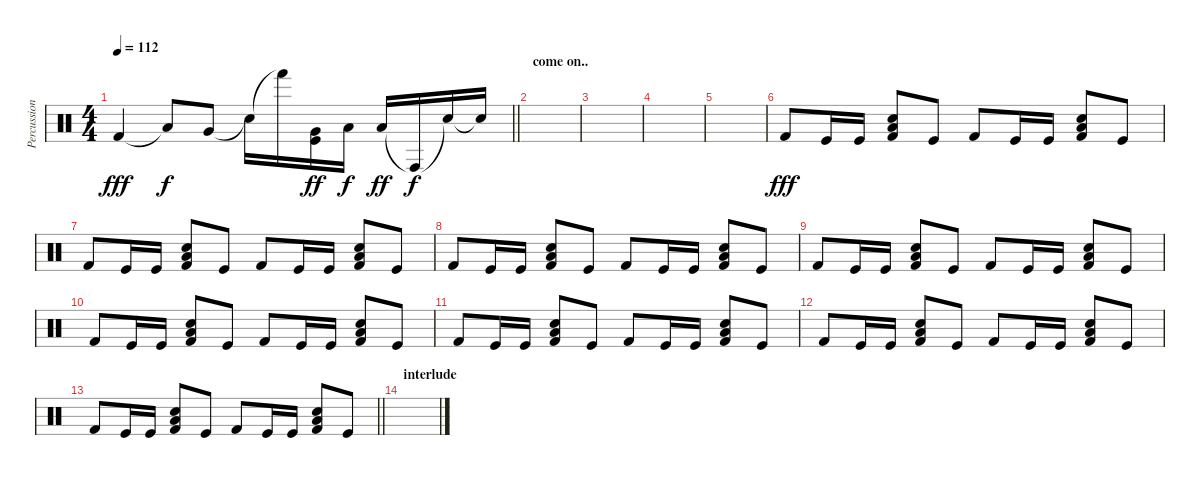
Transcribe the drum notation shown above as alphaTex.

\track ("Percussion" "Percussion") {instrument percussion}
\staff {score}
\articulation defaults
\ts (4 4)
\tempo 112
\clef neutral
\barLineRight lightlight
\ks c "Kick (hit) 2".4{dy fff} "Low Floor Tom (hit)"{t}.8{dy f} "Very Low Tom (hit)".8 "Snare (hit)"{t}.16 "Hand (hit)"{t}.16
("Very Low Tom (hit)" "Kick (hit)").16{dy ff} "Low Tom (hit)".16{dy f} "Low Tom (hit)".16{dy ff} "Conga high (hit)"{t}.16{dy f} "Snare (hit)"{t}.16 "Snare (hit)"{t}.16 |
\section ("" "come on..")
|
|
|
|
"Kick (hit) 2".8{dy fff} "Kick (hit)".16 "Kick (hit)".16 ("Kick (hit) 2" "Low Floor Tom (hit)" "Hand Clap (hit)").8 "Kick (hit)".8 "Kick (hit) 2".8 "Kick (hit)".16 "Kick (hit)".16 ("Kick (hit) 2" "Low Floor Tom (hit)" "Hand Clap (hit)").8 "Kick (hit)".8 |
"Kick (hit) 2".8 "Kick (hit)".16 "Kick (hit)".16 ("Kick (hit) 2" "Low Floor Tom (hit)" "Hand Clap (hit)").8 "Kick (hit)".8 "Kick (hit) 2".8 "Kick (hit)".16 "Kick (hit)".16 ("Kick (hit) 2" "Low Floor Tom (hit)" "Hand Clap (hit)").8 "Kick (hit)".8 |
"Kick (hit) 2".8 "Kick (hit)".16 "Kick (hit)".16 ("Kick (hit) 2" "Low Floor Tom (hit)" "Hand Clap (hit)").8 "Kick (hit)".8 "Kick (hit) 2".8 "Kick (hit)".16 "Kick (hit)".16 ("Kick (hit) 2" "Low Floor Tom (hit)" "Hand Clap (hit)").8 "Kick (hit)".8 |
"Kick (hit) 2".8 "Kick (hit)".16 "Kick (hit)".16 ("Kick (hit) 2" "Low Floor Tom (hit)" "Hand Clap (hit)").8 "Kick (hit)".8 "Kick (hit) 2".8 "Kick (hit)".16 "Kick (hit)".16 ("Kick (hit) 2" "Low Floor Tom (hit)" "Hand Clap (hit)").8 "Kick (hit)".8 |
"Kick (hit) 2".8 "Kick (hit)".16 "Kick (hit)".16 ("Kick (hit) 2" "Low Floor Tom (hit)" "Hand Clap (hit)").8 "Kick (hit)".8 "Kick (hit) 2".8 "Kick (hit)".16 "Kick (hit)".16 ("Kick (hit) 2" "Low Floor Tom (hit)" "Hand Clap (hit)").8 "Kick (hit)".8 |
"Kick (hit) 2".8 "Kick (hit)".16 "Kick (hit)".16 ("Kick (hit) 2" "Low Floor Tom (hit)" "Hand Clap (hit)").8 "Kick (hit)".8 "Kick (hit) 2".8 "Kick (hit)".16 "Kick (hit)".16 ("Kick (hit) 2" "Low Floor Tom (hit)" "Hand Clap (hit)").8 "Kick (hit)".8 |
"Kick (hit) 2".8 "Kick (hit)".16 "Kick (hit)".16 ("Kick (hit) 2" "Low Floor Tom (hit)" "Hand Clap (hit)").8 "Kick (hit)".8 "Kick (hit) 2".8 "Kick (hit)".16 "Kick (hit)".16 ("Kick (hit) 2" "Low Floor Tom (hit)" "Hand Clap (hit)").8 "Kick (hit)".8 |
\barLineRight lightlight "Kick (hit) 2".8 "Kick (hit)".16 "Kick (hit)".16
("Kick (hit) 2" "Low Floor Tom (hit)" "Hand Clap (hit)").8 "Kick (hit)".8 "Kick (hit) 2".8 "Kick (hit)".16 "Kick (hit)".16 ("Kick (hit) 2" "Low Floor Tom (hit)" "Hand Clap (hit)").8 "Kick (hit)".8 |
\section ("" "interlude")
